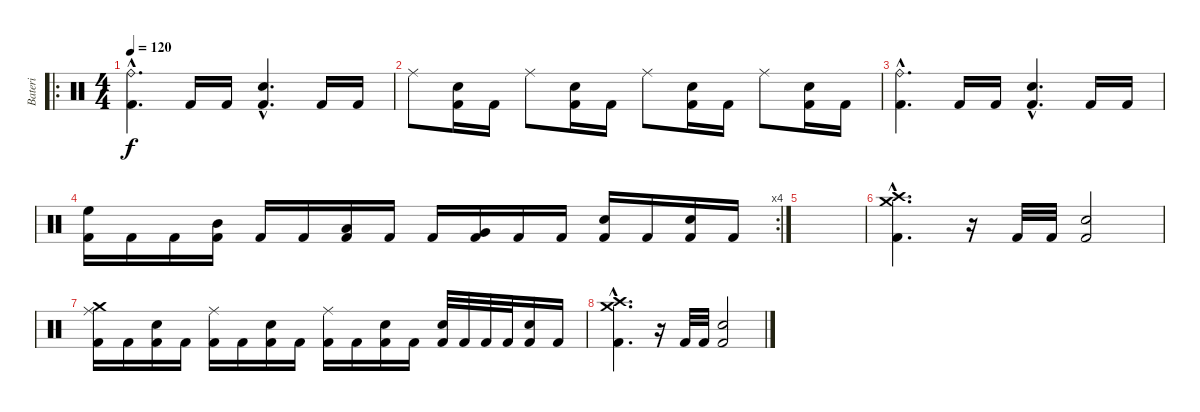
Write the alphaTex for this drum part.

\track ("Bateri" "Bateri") {instrument percussion}
\staff {score}
\articulation defaults
\ro
\ts (4 4)
\tempo 120
\clef neutral
\ks c
("Ride (bell)"{hac} "Kick (hit) 2"{hac}).4{d dy f} "Kick (hit) 2".16 "Kick (hit) 2".16 ("Snare (hit) 2"{hac} "Kick (hit) 2"{hac}).4{d} "Kick (hit) 2".16 "Kick (hit) 2".16 |
"Ride (middle)".8 ("Snare (hit) 2" "Kick (hit) 2").16 "Kick (hit) 2".16 "Ride (middle)".8 ("Snare (hit) 2" "Kick (hit) 2").16 "Kick (hit) 2".16 "Ride (middle)".8 ("Snare (hit) 2" "Kick (hit) 2").16 "Kick (hit) 2".16 "Ride (middle)".8 ("Snare (hit) 2" "Kick (hit) 2").16 "Kick (hit) 2".16 |
("Ride (bell)"{hac} "Kick (hit) 2"{hac}).4{d} "Kick (hit) 2".16 "Kick (hit) 2".16 ("Snare (hit) 2"{hac} "Kick (hit) 2"{hac}).4{d} "Kick (hit) 2".16 "Kick (hit) 2".16 |
\rc 4
("High Floor Tom (hit)" "Kick (hit) 2").16 "Kick (hit) 2".16 "Kick (hit) 2".16 ("Mid Tom (hit)" "Kick (hit) 2").16 "Kick (hit) 2".16 "Kick (hit) 2".16 ("Low Tom (hit)" "Kick (hit) 2").16 "Kick (hit) 2".16 "Kick (hit) 2".16 ("Very Low Tom (hit)" "Kick (hit) 2").16 "Kick (hit) 2".16 "Kick (hit) 2".16 ("Snare (hit) 2" "Kick (hit) 2").16 "Kick (hit) 2".16 ("Snare (hit) 2" "Kick (hit) 2").16 "Kick (hit) 2".16 |
|
("Crash medium (hit)"{hac} "Crash high (hit)"{hac} "Kick (hit) 2"{hac}).4{d} r.16 "Kick (hit) 2".32 "Kick (hit) 2".32 ("Snare (hit) 2" "Kick (hit) 2").2 |
("Crash medium (hit)" "Ride (middle)" "Kick (hit) 2").16 "Kick (hit) 2".16 ("Snare (hit) 2" "Kick (hit) 2").16 "Kick (hit) 2".16 ("Ride (middle)" "Kick (hit) 2").16 "Kick (hit) 2".16 ("Snare (hit) 2" "Kick (hit) 2").16 "Kick (hit) 2".16 ("Ride (middle)" "Kick (hit) 2").16 "Kick (hit) 2".16 ("Snare (hit) 2" "Kick (hit) 2").16 "Kick (hit) 2".16 ("Snare (hit) 2" "Kick (hit) 2").32 "Kick (hit) 2".32 "Kick (hit) 2".32 "Kick (hit) 2".32 ("Snare (hit) 2" "Kick (hit) 2").16 "Kick (hit) 2".16 |
("Crash medium (hit)"{hac} "Crash high (hit)"{hac} "Kick (hit) 2"{hac}).4{d} r.16 "Kick (hit) 2".32 "Kick (hit) 2".32 ("Snare (hit) 2" "Kick (hit) 2").2
